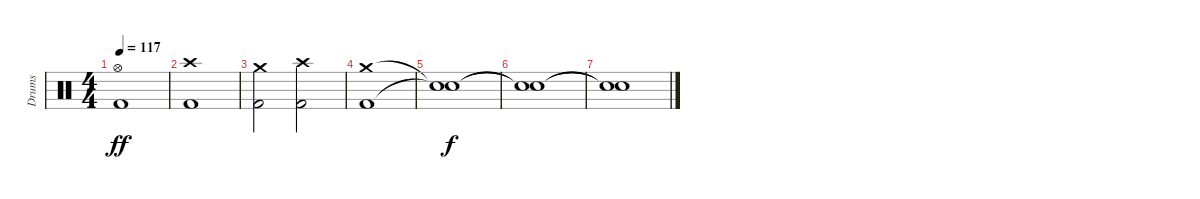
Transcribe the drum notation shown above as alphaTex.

\track ("Drums" "Drums") {instrument percussion}
\staff {score}
\articulation defaults
\ts (4 4)
\tempo 117
\clef neutral
\ks c
("Hi-Hat (open)" "Kick (hit) 2").1{dy ff} |
("Crash high (hit)" "Kick (hit) 2").1 |
("Crash medium (hit)" "Kick (hit) 2").2 ("Crash high (hit)" "Kick (hit) 2").2 |
("Crash medium (hit)" "Kick (hit) 2").1 |
("Snare (hit)"{t} "Snare (hit)"{t}).1{dy f} |
("Snare (hit)"{t} "Snare (hit)"{t}).1 |
("Snare (hit)"{t} "Snare (hit)"{t}).1
